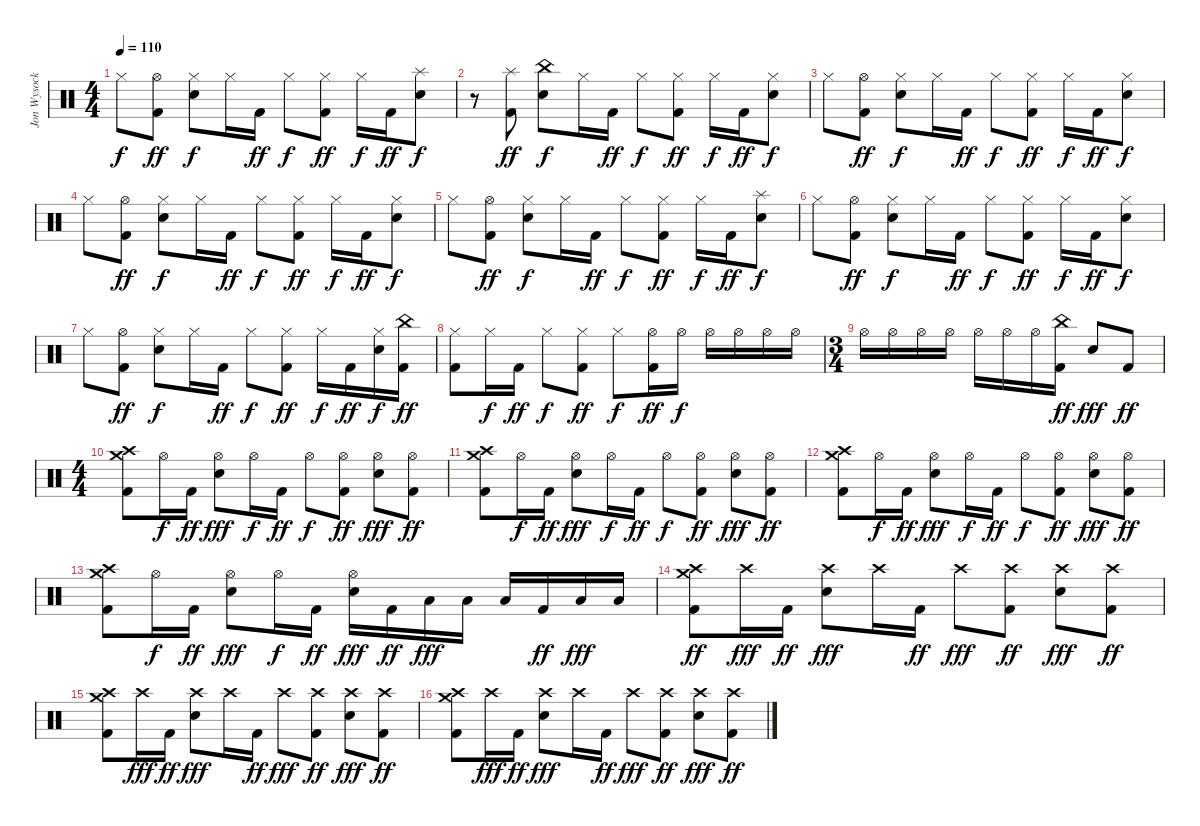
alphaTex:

\track ("Jon Wysocki" "Jon Wysock") {instrument percussion}
\staff {score}
\articulation defaults
\ts (4 4)
\tempo 110
\clef neutral
\ks c "Hi-Hat (closed)".8{dy f}
("Hi-Hat (open)" "Kick (hit) 2").8{dy ff} ("Hi-Hat (closed)" "Electric Snare (hit)").8{dy f} "Hi-Hat (closed)".16 "Kick (hit) 2".16{dy ff} "Hi-Hat (closed)".8{dy f} ("Hi-Hat (closed)" "Kick (hit) 2").8{dy ff} "Hi-Hat (closed)".16{dy f} "Kick (hit) 2".16{dy ff} ("Splash (hit)" "Electric Snare (hit)").8{dy f} |
r.8 ("Splash (hit)" "Kick (hit) 2").8{dy ff} ("China (hit)" "Electric Snare (hit)").8{dy f} "Hi-Hat (closed)".16 "Kick (hit) 2".16{dy ff} "Hi-Hat (closed)".8{dy f} ("Hi-Hat (closed)" "Kick (hit) 2").8{dy ff} "Hi-Hat (closed)".16{dy f} "Kick (hit) 2".16{dy ff} ("Hi-Hat (closed)" "Electric Snare (hit)").8{dy f} |
"Hi-Hat (closed)".8 ("Hi-Hat (open)" "Kick (hit) 2").8{dy ff} ("Hi-Hat (closed)" "Electric Snare (hit)").8{dy f} "Hi-Hat (closed)".16 "Kick (hit) 2".16{dy ff} "Hi-Hat (closed)".8{dy f} ("Hi-Hat (closed)" "Kick (hit) 2").8{dy ff} "Hi-Hat (closed)".16{dy f} "Kick (hit) 2".16{dy ff} ("Hi-Hat (closed)" "Electric Snare (hit)").8{dy f} |
"Hi-Hat (closed)".8 ("Hi-Hat (open)" "Kick (hit) 2").8{dy ff} ("Hi-Hat (closed)" "Electric Snare (hit)").8{dy f} "Hi-Hat (closed)".16 "Kick (hit) 2".16{dy ff} "Hi-Hat (closed)".8{dy f} ("Hi-Hat (closed)" "Kick (hit) 2").8{dy ff} "Hi-Hat (closed)".16{dy f} "Kick (hit) 2".16{dy ff} ("Hi-Hat (closed)" "Electric Snare (hit)").8{dy f} |
"Hi-Hat (closed)".8 ("Hi-Hat (open)" "Kick (hit) 2").8{dy ff} ("Hi-Hat (closed)" "Electric Snare (hit)").8{dy f} "Hi-Hat (closed)".16 "Kick (hit) 2".16{dy ff} "Hi-Hat (closed)".8{dy f} ("Hi-Hat (closed)" "Kick (hit) 2").8{dy ff} "Hi-Hat (closed)".16{dy f} "Kick (hit) 2".16{dy ff} ("Splash (hit)" "Electric Snare (hit)").8{dy f} |
"Hi-Hat (closed)".8 ("Hi-Hat (open)" "Kick (hit) 2").8{dy ff} ("Hi-Hat (closed)" "Electric Snare (hit)").8{dy f} "Hi-Hat (closed)".16 "Kick (hit) 2".16{dy ff} "Hi-Hat (closed)".8{dy f} ("Hi-Hat (closed)" "Kick (hit) 2").8{dy ff} "Hi-Hat (closed)".16{dy f} "Kick (hit) 2".16{dy ff} ("Hi-Hat (closed)" "Electric Snare (hit)").8{dy f} |
"Hi-Hat (closed)".8 ("Hi-Hat (open)" "Kick (hit) 2").8{dy ff} ("Hi-Hat (closed)" "Electric Snare (hit)").8{dy f} "Hi-Hat (closed)".16 "Kick (hit) 2".16{dy ff} "Hi-Hat (closed)".8{dy f} ("Hi-Hat (closed)" "Kick (hit) 2").8{dy ff} "Hi-Hat (closed)".16{dy f} "Kick (hit) 2".16{dy ff} ("Hi-Hat (closed)" "Electric Snare (hit)").16{dy f} ("China (hit)" "Kick (hit) 2").16{dy ff} |
("Hi-Hat (closed)" "Kick (hit) 2").8 "Hi-Hat (closed)".16{dy f} "Kick (hit) 2".16{dy ff} "Hi-Hat (closed)".8{dy f} ("Hi-Hat (closed)" "Kick (hit) 2").8{dy ff} "Hi-Hat (closed)".8{dy f} ("Hi-Hat (open)" "Kick (hit) 2").16{dy ff} "Hi-Hat (open)".16{dy f} "Hi-Hat (open)".16 "Hi-Hat (open)".16 "Hi-Hat (open)".16 "Hi-Hat (open)".16 |
\ts (3 4)
"Hi-Hat (open)".16 "Hi-Hat (open)".16 "Hi-Hat (open)".16 "Hi-Hat (open)".16 "Hi-Hat (open)".16 "Hi-Hat (open)".16 "Hi-Hat (open)".16 ("China (hit)" "Kick (hit) 2").16{dy ff} "Electric Snare (hit)".8{dy fff} "Kick (hit) 2".8{dy ff} |
\ts (4 4)
("Crash medium (hit)" "Crash high (hit)" "Kick (hit) 2").8 "Hi-Hat (open)".16{dy f} "Kick (hit) 2".16{dy ff} ("Hi-Hat (open)" "Electric Snare (hit)").8{dy fff} "Hi-Hat (open)".16{dy f} "Kick (hit) 2".16{dy ff} "Hi-Hat (open)".8{dy f} ("Hi-Hat (open)" "Kick (hit) 2").8{dy ff} ("Hi-Hat (open)" "Electric Snare (hit)").8{dy fff} ("Hi-Hat (open)" "Kick (hit) 2").8{dy ff} |
("Crash medium (hit)" "Crash high (hit)" "Kick (hit) 2").8 "Hi-Hat (open)".16{dy f} "Kick (hit) 2".16{dy ff} ("Hi-Hat (open)" "Electric Snare (hit)").8{dy fff} "Hi-Hat (open)".16{dy f} "Kick (hit) 2".16{dy ff} "Hi-Hat (open)".8{dy f} ("Hi-Hat (open)" "Kick (hit) 2").8{dy ff} ("Hi-Hat (open)" "Electric Snare (hit)").8{dy fff} ("Hi-Hat (open)" "Kick (hit) 2").8{dy ff} |
("Crash medium (hit)" "Crash high (hit)" "Kick (hit) 2").8 "Hi-Hat (open)".16{dy f} "Kick (hit) 2".16{dy ff} ("Hi-Hat (open)" "Electric Snare (hit)").8{dy fff} "Hi-Hat (open)".16{dy f} "Kick (hit) 2".16{dy ff} "Hi-Hat (open)".8{dy f} ("Hi-Hat (open)" "Kick (hit) 2").8{dy ff} ("Hi-Hat (open)" "Electric Snare (hit)").8{dy fff} ("Hi-Hat (open)" "Kick (hit) 2").8{dy ff} |
("Crash medium (hit)" "Crash high (hit)" "Kick (hit) 2").8 "Hi-Hat (open)".16{dy f} "Kick (hit) 2".16{dy ff} ("Hi-Hat (open)" "Electric Snare (hit)").8{dy fff} "Hi-Hat (open)".16{dy f} "Kick (hit) 2".16{dy ff} ("Hi-Hat (open)" "Electric Snare (hit)").16{dy fff} "Kick (hit) 2".16{dy ff} "Low Tom (hit)".16{dy fff} "Low Tom (hit)".16 "Low Floor Tom (hit)".16 "Kick (hit) 2".16{dy ff} "Low Floor Tom (hit)".16{dy fff} "Low Floor Tom (hit)".16 |
("Crash medium (hit)" "Crash high (hit)" "Kick (hit) 2").8{dy ff} "Crash high (hit)".16{dy fff} "Kick (hit) 2".16{dy ff} ("Crash high (hit)" "Electric Snare (hit)").8{dy fff} "Crash high (hit)".16 "Kick (hit) 2".16{dy ff} "Crash high (hit)".8{dy fff} ("Crash high (hit)" "Kick (hit) 2").8{dy ff} ("Crash high (hit)" "Electric Snare (hit)").8{dy fff} ("Crash high (hit)" "Kick (hit) 2").8{dy ff} |
("Crash medium (hit)" "Crash high (hit)" "Kick (hit) 2").8 "Crash high (hit)".16{dy fff} "Kick (hit) 2".16{dy ff} ("Crash high (hit)" "Electric Snare (hit)").8{dy fff} "Crash high (hit)".16 "Kick (hit) 2".16{dy ff} "Crash high (hit)".8{dy fff} ("Crash high (hit)" "Kick (hit) 2").8{dy ff} ("Crash high (hit)" "Electric Snare (hit)").8{dy fff} ("Crash high (hit)" "Kick (hit) 2").8{dy ff} |
("Crash medium (hit)" "Crash high (hit)" "Kick (hit) 2").8 "Crash high (hit)".16{dy fff} "Kick (hit) 2".16{dy ff} ("Crash high (hit)" "Electric Snare (hit)").8{dy fff} "Crash high (hit)".16 "Kick (hit) 2".16{dy ff} "Crash high (hit)".8{dy fff} ("Crash high (hit)" "Kick (hit) 2").8{dy ff} ("Crash high (hit)" "Electric Snare (hit)").8{dy fff} ("Crash high (hit)" "Kick (hit) 2").8{dy ff}
